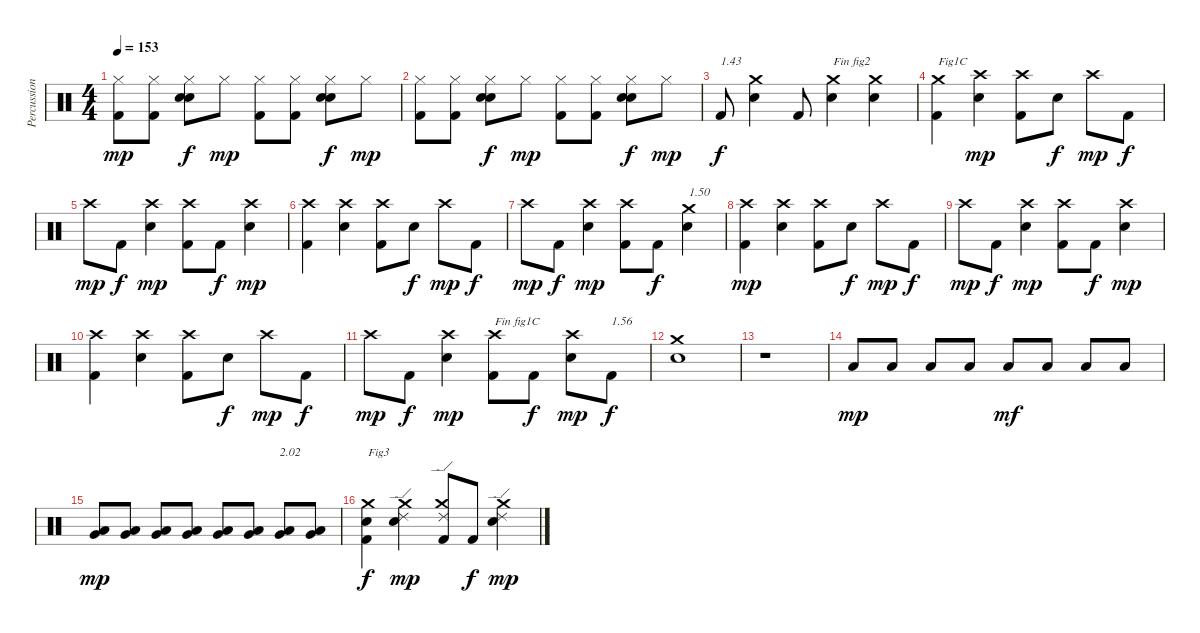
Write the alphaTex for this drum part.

\track ("Percussions" "Percussion") {instrument percussion}
\staff {score}
\articulation defaults
\ts (4 4)
\tempo 153
\clef neutral
\ks c
("Kick (hit) 2" "Hi-Hat (closed)").8{dy mp} ("Kick (hit) 2" "Hi-Hat (closed)").8 ("Snare (hit) 2" "Electric Snare (hit)" "Hi-Hat (closed)").8{dy f} "Hi-Hat (closed)".8{dy mp} ("Kick (hit) 2" "Hi-Hat (closed)").8 ("Kick (hit) 2" "Hi-Hat (closed)").8 ("Snare (hit) 2" "Electric Snare (hit)" "Hi-Hat (closed)").8{dy f} "Hi-Hat (closed)".8{dy mp} |
("Kick (hit) 2" "Hi-Hat (closed)").8 ("Kick (hit) 2" "Hi-Hat (closed)").8 ("Snare (hit) 2" "Electric Snare (hit)" "Hi-Hat (closed)").8{dy f} "Hi-Hat (closed)".8{dy mp} ("Kick (hit) 2" "Hi-Hat (closed)").8 ("Kick (hit) 2" "Hi-Hat (closed)").8 ("Snare (hit) 2" "Electric Snare (hit)" "Hi-Hat (closed)").8{dy f} "Hi-Hat (closed)".8{dy mp} |
"Kick (hit) 2".8{txt "1.43" dy f} ("Electric Snare (hit)" "Crash medium (hit)").4 "Kick (hit) 2".8 ("Electric Snare (hit)" "Crash medium (hit)").4{txt "Fin fig2"} ("Electric Snare (hit)" "Crash medium (hit)").4 |
("Kick (hit) 2" "Crash medium (hit)").4{txt "Fig1C"} ("Electric Snare (hit)" "Crash high (hit)").4{dy mp} ("Kick (hit) 2" "Crash high (hit)").8 "Electric Snare (hit)".8{dy f} "Crash high (hit)".8{dy mp} "Kick (hit) 2".8{dy f} |
"Crash high (hit)".8{dy mp} "Kick (hit) 2".8{dy f} ("Electric Snare (hit)" "Crash high (hit)").4{dy mp} ("Kick (hit) 2" "Crash high (hit)").8 "Kick (hit) 2".8{dy f} ("Electric Snare (hit)" "Crash high (hit)").4{dy mp} |
("Kick (hit) 2" "Crash high (hit)").4 ("Electric Snare (hit)" "Crash high (hit)").4 ("Kick (hit) 2" "Crash high (hit)").8 "Electric Snare (hit)".8{dy f} "Crash high (hit)".8{dy mp} "Kick (hit) 2".8{dy f} |
"Crash high (hit)".8{dy mp} "Kick (hit) 2".8{dy f} ("Electric Snare (hit)" "Crash high (hit)").4{dy mp} ("Kick (hit) 2" "Crash high (hit)").8 "Kick (hit) 2".8{dy f} ("Electric Snare (hit)" "Crash medium (hit)").4{txt "1.50"} |
("Kick (hit) 2" "Crash high (hit)").4{dy mp} ("Electric Snare (hit)" "Crash high (hit)").4 ("Kick (hit) 2" "Crash high (hit)").8 "Electric Snare (hit)".8{dy f} "Crash high (hit)".8{dy mp} "Kick (hit) 2".8{dy f} |
"Crash high (hit)".8{dy mp} "Kick (hit) 2".8{dy f} ("Electric Snare (hit)" "Crash high (hit)").4{dy mp} ("Kick (hit) 2" "Crash high (hit)").8 "Kick (hit) 2".8{dy f} ("Electric Snare (hit)" "Crash high (hit)").4{dy mp} |
("Kick (hit) 2" "Crash high (hit)").4 ("Electric Snare (hit)" "Crash high (hit)").4 ("Kick (hit) 2" "Crash high (hit)").8 "Electric Snare (hit)".8{dy f} "Crash high (hit)".8{dy mp} "Kick (hit) 2".8{dy f} |
"Crash high (hit)".8{dy mp} "Kick (hit) 2".8{dy f} ("Electric Snare (hit)" "Crash high (hit)").4{dy mp} ("Kick (hit) 2" "Crash high (hit)").8{txt "Fin fig1C"} "Kick (hit) 2".8{dy f} ("Electric Snare (hit)" "Crash high (hit)").8{dy mp} "Kick (hit) 2".8{txt "1.56" dy f} |
("Electric Snare (hit)" "Crash medium (hit)").1 |
r.1 |
"Low Floor Tom (hit)".8{dy mp} "Low Floor Tom (hit)".8 "Low Floor Tom (hit)".8 "Low Floor Tom (hit)".8 "Low Floor Tom (hit)".8{dy mf} "Low Floor Tom (hit)".8 "Low Floor Tom (hit)".8 "Low Floor Tom (hit)".8 |
("Low Floor Tom (hit)" "Very Low Tom (hit)").8{dy mp} ("Low Floor Tom (hit)" "Very Low Tom (hit)").8 ("Low Floor Tom (hit)" "Very Low Tom (hit)").8 ("Low Floor Tom (hit)" "Very Low Tom (hit)").8 ("Low Floor Tom (hit)" "Very Low Tom (hit)").8 ("Low Floor Tom (hit)" "Very Low Tom (hit)").8 ("Low Floor Tom (hit)" "Very Low Tom (hit)").8{txt "2.02"} ("Low Floor Tom (hit)" "Very Low Tom (hit)").8 |
("Kick (hit) 2" "Electric Snare (hit)" "Crash medium (hit)").4{txt "Fig3" dy f} ("Electric Snare (hit)" "Crash medium (hit)" "Ride (edge) 2").4{dy mp} ("Kick (hit) 2" "Crash medium (hit)" "Ride (edge) 2").8 "Kick (hit) 2".8{dy f} ("Electric Snare (hit)" "Crash medium (hit)" "Ride (edge) 2").4{dy mp}
